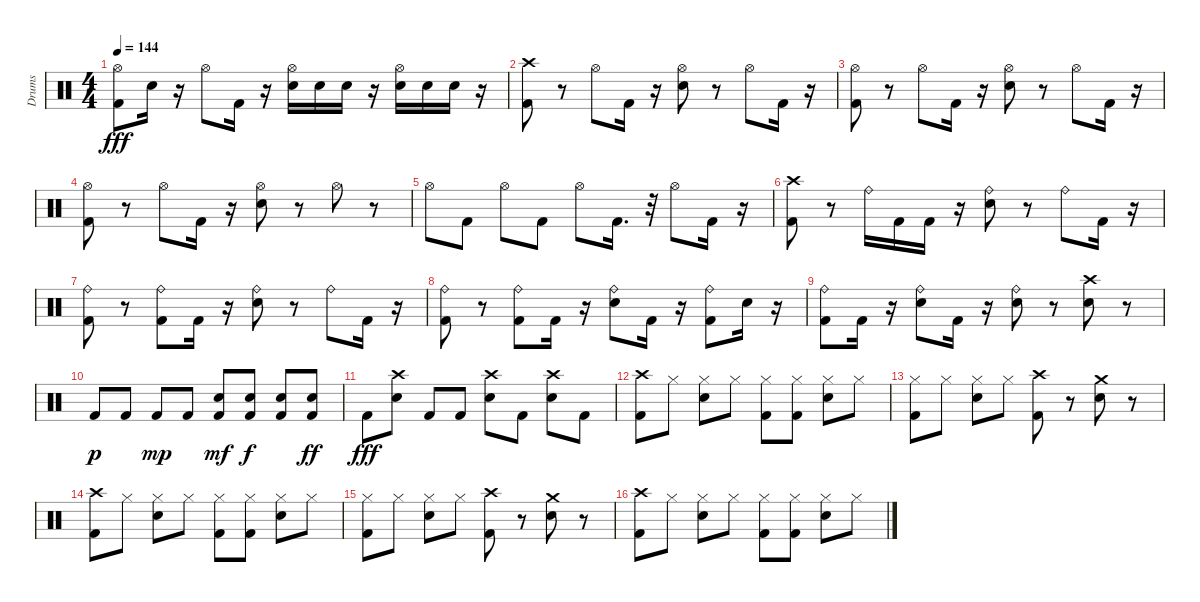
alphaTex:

\track ("Drums" "Drums") {instrument percussion}
\staff {score}
\articulation defaults
\ts (4 4)
\tempo 144
\clef neutral
\ks c
("Hi-Hat (open)" "Kick (hit) 2").8{dy fff} "Snare (hit) 2".16 r.16 "Hi-Hat (open)".8 "Kick (hit) 2".16 r.16 ("Hi-Hat (open)" "Snare (hit) 2").16 "Snare (hit) 2".16 "Snare (hit) 2".16 r.16 ("Hi-Hat (open)" "Snare (hit) 2").16 "Snare (hit) 2".16 "Snare (hit) 2".16 r.16 |
("Crash high (hit)" "Kick (hit) 2").8 r.8 "Hi-Hat (open)".8 "Kick (hit) 2".16 r.16 ("Snare (hit) 2" "Hi-Hat (open)").8 r.8 "Hi-Hat (open)".8 "Kick (hit) 2".16 r.16 |
("Kick (hit) 2" "Hi-Hat (open)").8 r.8 "Hi-Hat (open)".8 "Kick (hit) 2".16 r.16 ("Snare (hit) 2" "Hi-Hat (open)").8 r.8 "Hi-Hat (open)".8 "Kick (hit) 2".16 r.16 |
("Kick (hit) 2" "Hi-Hat (open)").8 r.8 "Hi-Hat (open)".8 "Kick (hit) 2".16 r.16 ("Snare (hit) 2" "Hi-Hat (open)").8 r.8 "Hi-Hat (open)".8 r.8 |
"Hi-Hat (open)".8 "Kick (hit) 2".8 "Hi-Hat (open)".8 "Kick (hit) 2".8 "Hi-Hat (open)".8 "Kick (hit) 2".16{d} r.32 "Hi-Hat (open)".8 "Kick (hit) 2".16 r.16 |
("Kick (hit) 2" "Crash high (hit)").8 r.8 "Ride (bell)".16 "Kick (hit) 2".16 "Kick (hit) 2".16 r.16 ("Snare (hit) 2" "Ride (bell)").8 r.8 "Ride (bell)".8 "Kick (hit) 2".16 r.16 |
("Kick (hit) 2" "Ride (bell)").8 r.8 ("Ride (bell)" "Kick (hit) 2").8 "Kick (hit) 2".16 r.16 ("Snare (hit) 2" "Ride (bell)").8 r.8 "Ride (bell)".8 "Kick (hit) 2".16 r.16 |
("Kick (hit) 2" "Ride (bell)").8 r.8 ("Ride (bell)" "Kick (hit) 2").8 "Kick (hit) 2".16 r.16 ("Snare (hit) 2" "Ride (bell)").8 "Kick (hit) 2".16 r.16 ("Ride (bell)" "Kick (hit) 2").8 "Snare (hit) 2".16 r.16 |
("Ride (bell)" "Kick (hit) 2").8 "Kick (hit) 2".16 r.16 ("Ride (bell)" "Snare (hit) 2").8 "Kick (hit) 2".16 r.16 ("Ride (bell)" "Snare (hit) 2").8 r.8 ("Snare (hit) 2" "Crash high (hit)").8 r.8 |
"Kick (hit) 2".8{dy p} "Kick (hit) 2".8 "Kick (hit) 2".8{dy mp} "Kick (hit) 2".8 ("Kick (hit) 2" "Snare (hit) 2").8{dy mf} ("Kick (hit) 2" "Snare (hit) 2").8{dy f} ("Kick (hit) 2" "Snare (hit) 2").8 ("Kick (hit) 2" "Snare (hit) 2").8{dy ff} |
"Kick (hit) 2".8{dy fff} ("Snare (hit) 2" "Crash high (hit)").8 "Kick (hit) 2".8 "Kick (hit) 2".8 ("Snare (hit) 2" "Crash high (hit)").8 "Kick (hit) 2".8 ("Snare (hit) 2" "Crash high (hit)").8 "Kick (hit) 2".8 |
("Crash high (hit)" "Kick (hit) 2").8 "Hi-Hat (closed)".8 ("Hi-Hat (closed)" "Snare (hit) 2").8 "Hi-Hat (closed)".8 ("Hi-Hat (closed)" "Kick (hit) 2").8 ("Hi-Hat (closed)" "Kick (hit) 2").8 ("Hi-Hat (closed)" "Snare (hit) 2").8 "Hi-Hat (closed)".8 |
("Hi-Hat (closed)" "Kick (hit) 2").8 "Hi-Hat (closed)".8 ("Hi-Hat (closed)" "Snare (hit) 2").8 "Hi-Hat (closed)".8 ("Crash high (hit)" "Kick (hit) 2").8 r.8 ("Snare (hit) 2" "Crash medium (hit)").8 r.8 |
("Kick (hit) 2" "Crash high (hit)").8 "Hi-Hat (closed)".8 ("Hi-Hat (closed)" "Snare (hit) 2").8 "Hi-Hat (closed)".8 ("Hi-Hat (closed)" "Kick (hit) 2").8 ("Hi-Hat (closed)" "Kick (hit) 2").8 ("Hi-Hat (closed)" "Snare (hit) 2").8 "Hi-Hat (closed)".8 |
("Hi-Hat (closed)" "Kick (hit) 2").8 "Hi-Hat (closed)".8 ("Hi-Hat (closed)" "Snare (hit) 2").8 "Hi-Hat (closed)".8 ("Crash high (hit)" "Kick (hit) 2").8 r.8 ("Snare (hit) 2" "Crash medium (hit)").8 r.8 |
("Kick (hit) 2" "Crash high (hit)").8 "Hi-Hat (closed)".8 ("Hi-Hat (closed)" "Snare (hit) 2").8 "Hi-Hat (closed)".8 ("Hi-Hat (closed)" "Kick (hit) 2").8 ("Hi-Hat (closed)" "Kick (hit) 2").8 ("Hi-Hat (closed)" "Snare (hit) 2").8 "Hi-Hat (closed)".8
